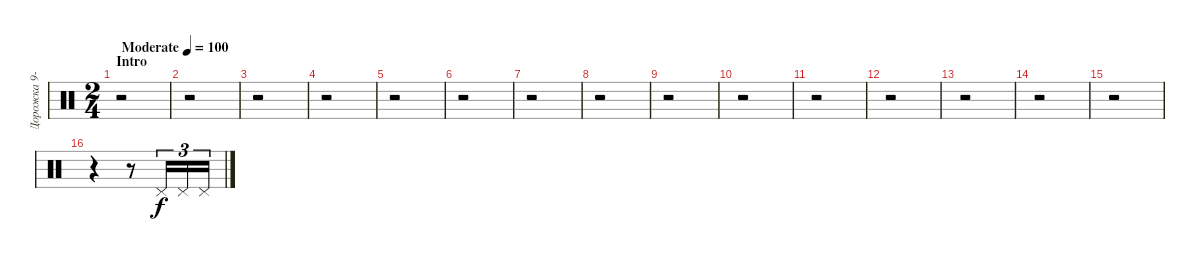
\track ("Дорожка 9-10" "Дорожка 9-") {instrument percussion}
\staff {score}
\articulation defaults
\ts (2 4)
\section ("" "Intro")
\tempo (100 "Moderate")
\clef neutral
\ks c
r.2{dy f} |
r.2 |
r.2 |
r.2 |
r.2 |
r.2 |
r.2 |
r.2 |
r.2 |
r.2 |
r.2 |
r.2 |
r.2 |
r.2 |
r.2 |
r.4 r.8 "Pedal Hi-Hat (hit)".16{tu (3 2)} "Pedal Hi-Hat (hit)".16{tu (3 2)} "Pedal Hi-Hat (hit)".16{tu (3 2)}
